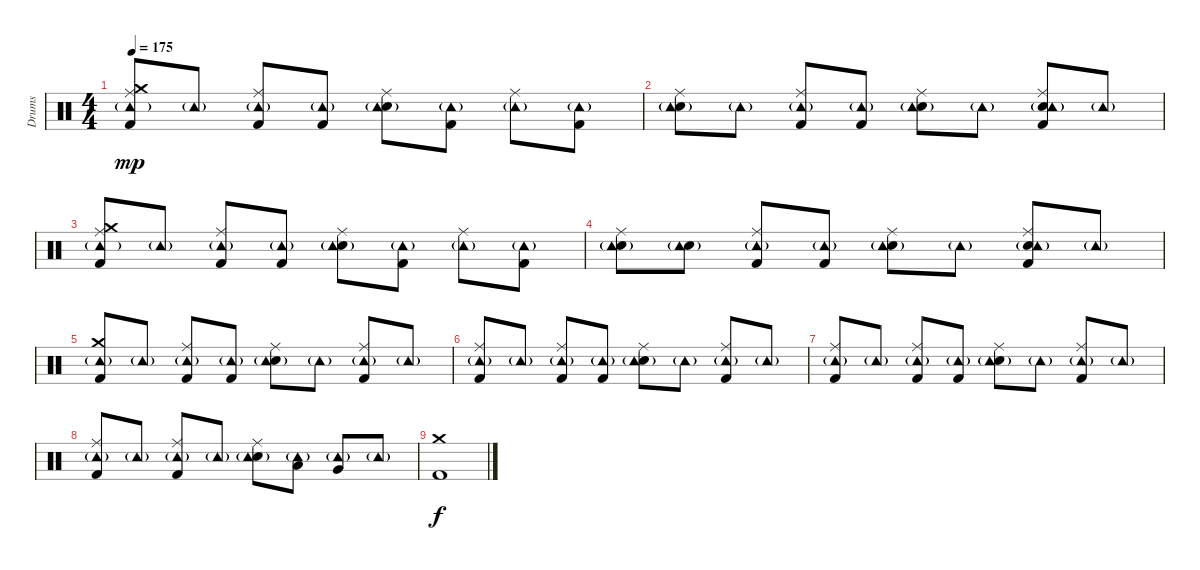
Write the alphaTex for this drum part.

\track ("Drums" "Drums") {instrument percussion}
\staff {score}
\articulation defaults
\ts (4 4)
\tempo 175
\clef neutral
\ks c
("Kick (hit) 2" "Ride (middle)" "Crash medium (hit)" "Tambourine (hit)"{g}).8{dy mp} "Tambourine (hit)"{g}.8 ("Kick (hit) 2" "Ride (middle)" "Tambourine (hit)"{g}).8 ("Kick (hit) 2" "Tambourine (hit)"{g}).8 ("Electric Snare (hit)" "Ride (middle)" "Tambourine (hit)"{g}).8 ("Kick (hit) 2" "Tambourine (hit)"{g}).8 ("Ride (middle)" "Tambourine (hit)"{g}).8 ("Kick (hit) 2" "Tambourine (hit)"{g}).8 |
("Electric Snare (hit)" "Ride (middle)" "Tambourine (hit)"{g}).8 "Tambourine (hit)"{g}.8 ("Kick (hit) 2" "Ride (middle)" "Tambourine (hit)"{g}).8 ("Kick (hit) 2" "Tambourine (hit)"{g}).8 ("Electric Snare (hit)" "Ride (middle)" "Tambourine (hit)"{g}).8 "Tambourine (hit)"{g}.8 ("Kick (hit) 2" "Electric Snare (hit)" "Ride (middle)" "Tambourine (hit)"{g}).8 "Tambourine (hit)"{g}.8 |
("Kick (hit) 2" "Ride (middle)" "Crash medium (hit)" "Tambourine (hit)"{g}).8 "Tambourine (hit)"{g}.8 ("Kick (hit) 2" "Ride (middle)" "Tambourine (hit)"{g}).8 ("Kick (hit) 2" "Tambourine (hit)"{g}).8 ("Electric Snare (hit)" "Ride (middle)" "Tambourine (hit)"{g}).8 ("Kick (hit) 2" "Tambourine (hit)"{g}).8 ("Ride (middle)" "Tambourine (hit)"{g}).8 ("Kick (hit) 2" "Tambourine (hit)"{g}).8 |
("Electric Snare (hit)" "Ride (middle)" "Tambourine (hit)"{g}).8 ("Electric Snare (hit)" "Tambourine (hit)"{g}).8 ("Kick (hit) 2" "Ride (middle)" "Tambourine (hit)"{g}).8 ("Kick (hit) 2" "Tambourine (hit)"{g}).8 ("Electric Snare (hit)" "Ride (middle)" "Tambourine (hit)"{g}).8 "Tambourine (hit)"{g}.8 ("Kick (hit) 2" "Electric Snare (hit)" "Ride (middle)" "Tambourine (hit)"{g}).8 "Tambourine (hit)"{g}.8 |
("Kick (hit) 2" "Crash medium (hit)" "Tambourine (hit)"{g}).8 "Tambourine (hit)"{g}.8 ("Kick (hit) 2" "Ride (middle)" "Tambourine (hit)"{g}).8 ("Kick (hit) 2" "Tambourine (hit)"{g}).8 ("Electric Snare (hit)" "Ride (middle)" "Tambourine (hit)"{g}).8 "Tambourine (hit)"{g}.8 ("Kick (hit) 2" "Ride (middle)" "Tambourine (hit)"{g}).8 "Tambourine (hit)"{g}.8 |
("Kick (hit) 2" "Ride (middle)" "Tambourine (hit)"{g}).8 "Tambourine (hit)"{g}.8 ("Kick (hit) 2" "Ride (middle)" "Tambourine (hit)"{g}).8 ("Kick (hit) 2" "Tambourine (hit)"{g}).8 ("Electric Snare (hit)" "Ride (middle)" "Tambourine (hit)"{g}).8 "Tambourine (hit)"{g}.8 ("Kick (hit) 2" "Ride (middle)" "Tambourine (hit)"{g}).8 "Tambourine (hit)"{g}.8 |
("Kick (hit) 2" "Ride (middle)" "Tambourine (hit)"{g}).8 "Tambourine (hit)"{g}.8 ("Kick (hit) 2" "Ride (middle)" "Tambourine (hit)"{g}).8 ("Kick (hit) 2" "Tambourine (hit)"{g}).8 ("Electric Snare (hit)" "Ride (middle)" "Tambourine (hit)"{g}).8 "Tambourine (hit)"{g}.8 ("Kick (hit) 2" "Ride (middle)" "Tambourine (hit)"{g}).8 "Tambourine (hit)"{g}.8 |
("Kick (hit) 2" "Ride (middle)" "Tambourine (hit)"{g}).8 "Tambourine (hit)"{g}.8 ("Kick (hit) 2" "Ride (middle)" "Tambourine (hit)"{g}).8 "Tambourine (hit)"{g}.8 ("Electric Snare (hit)" "Ride (middle)" "Tambourine (hit)"{g}).8 ("Low Tom (hit)" "Tambourine (hit)"{g}).8 ("Very Low Tom (hit)" "Tambourine (hit)"{g}).8 "Tambourine (hit)"{g}.8 |
("Kick (hit) 2" "Crash medium (hit)").1{dy f}
